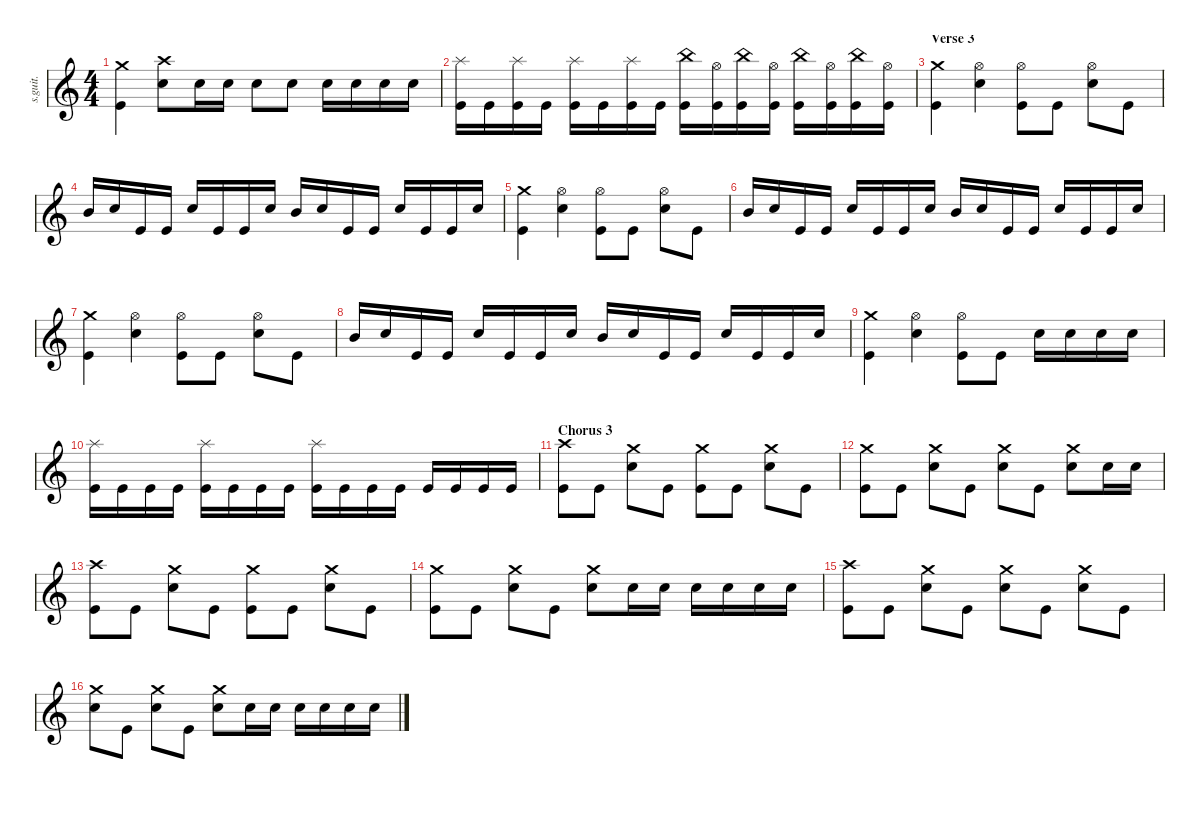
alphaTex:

\defaultSystemsLayout 4
\hideDynamics
\bracketExtendMode nobrackets
\track ("Joey Jordison" "s.guit.") {instrument percussion}
\staff {score}
\articulation defaults
\ts (4 4)
\tempo (205 hide)
\clef g2
\ks c
("Crash medium (hit)" "Kick (hit)").4{lyrics (0 "") lyrics (1 "") lyrics (2 "") lyrics (3 "") lyrics (4 "") dy ff} ("Crash high (hit)" "Snare (hit) 2").8{lyrics (0 "") lyrics (1 "") lyrics (2 "") lyrics (3 "") lyrics (4 "")} "Snare (hit) 2".16{lyrics (0 "") lyrics (1 "") lyrics (2 "") lyrics (3 "") lyrics (4 "")} "Snare (hit) 2".16{lyrics (0 "") lyrics (1 "") lyrics (2 "") lyrics (3 "") lyrics (4 "")} "Snare (hit) 2".8{lyrics (0 "") lyrics (1 "") lyrics (2 "") lyrics (3 "") lyrics (4 "")} "Snare (hit) 2".8{lyrics (0 "") lyrics (1 "") lyrics (2 "") lyrics (3 "") lyrics (4 "")} "Snare (hit) 2".16{lyrics (0 "") lyrics (1 "") lyrics (2 "") lyrics (3 "") lyrics (4 "")} "Snare (hit) 2".16{lyrics (0 "") lyrics (1 "") lyrics (2 "") lyrics (3 "") lyrics (4 "")} "Snare (hit) 2".16{lyrics (0 "") lyrics (1 "") lyrics (2 "") lyrics (3 "") lyrics (4 "")} "Snare (hit) 2".16{lyrics (0 "") lyrics (1 "") lyrics (2 "") lyrics (3 "") lyrics (4 "")} |
("Kick (hit)" "Splash (hit)").16{lyrics (0 "") lyrics (1 "") lyrics (2 "") lyrics (3 "") lyrics (4 "")} "Kick (hit)".16{lyrics (0 "") lyrics (1 "") lyrics (2 "") lyrics (3 "") lyrics (4 "")} ("Kick (hit)" "Splash (hit)").16{lyrics (0 "") lyrics (1 "") lyrics (2 "") lyrics (3 "") lyrics (4 "")} "Kick (hit)".16{lyrics (0 "") lyrics (1 "") lyrics (2 "") lyrics (3 "") lyrics (4 "")} ("Kick (hit)" "Splash (hit)").16{lyrics (0 "") lyrics (1 "") lyrics (2 "") lyrics (3 "") lyrics (4 "")} "Kick (hit)".16{lyrics (0 "") lyrics (1 "") lyrics (2 "") lyrics (3 "") lyrics (4 "")} ("Kick (hit)" "Splash (hit)").16{lyrics (0 "") lyrics (1 "") lyrics (2 "") lyrics (3 "") lyrics (4 "")} "Kick (hit)".16{lyrics (0 "") lyrics (1 "") lyrics (2 "") lyrics (3 "") lyrics (4 "")} ("Kick (hit)" "China (hit)").16{lyrics (0 "") lyrics (1 "") lyrics (2 "") lyrics (3 "") lyrics (4 "")} ("Kick (hit)" "Hi-Hat (open)").16{lyrics (0 "") lyrics (1 "") lyrics (2 "") lyrics (3 "") lyrics (4 "")} ("Kick (hit)" "China (hit)").16{lyrics (0 "") lyrics (1 "") lyrics (2 "") lyrics (3 "") lyrics (4 "")} ("Kick (hit)" "Hi-Hat (open)").16{lyrics (0 "") lyrics (1 "") lyrics (2 "") lyrics (3 "") lyrics (4 "")} ("Kick (hit)" "China (hit)").16{lyrics (0 "") lyrics (1 "") lyrics (2 "") lyrics (3 "") lyrics (4 "")} ("Kick (hit)" "Hi-Hat (open)").16{lyrics (0 "") lyrics (1 "") lyrics (2 "") lyrics (3 "") lyrics (4 "")} ("Kick (hit)" "China (hit)").16{lyrics (0 "") lyrics (1 "") lyrics (2 "") lyrics (3 "") lyrics (4 "")} ("Kick (hit)" "Hi-Hat (open)").16{lyrics (0 "") lyrics (1 "") lyrics (2 "") lyrics (3 "") lyrics (4 "")} |
\section ("" "Verse 3")
\tempo (210 hide)
("Crash medium (hit)" "Kick (hit)").4{lyrics (0 "") lyrics (1 "") lyrics (2 "") lyrics (3 "") lyrics (4 "")} ("Snare (hit) 2" "Hi-Hat (open)").4{lyrics (0 "") lyrics (1 "") lyrics (2 "") lyrics (3 "") lyrics (4 "")} ("Kick (hit)" "Hi-Hat (open)").8{lyrics (0 "") lyrics (1 "") lyrics (2 "") lyrics (3 "") lyrics (4 "")} "Kick (hit)".8{lyrics (0 "") lyrics (1 "") lyrics (2 "") lyrics (3 "") lyrics (4 "")} ("Snare (hit) 2" "Hi-Hat (open)").8{lyrics (0 "") lyrics (1 "") lyrics (2 "") lyrics (3 "") lyrics (4 "")} "Kick (hit)".8{lyrics (0 "") lyrics (1 "") lyrics (2 "") lyrics (3 "") lyrics (4 "")} |
"Mid Tom (hit)".16{lyrics (0 "") lyrics (1 "") lyrics (2 "") lyrics (3 "") lyrics (4 "")} "Snare (hit) 2".16{lyrics (0 "") lyrics (1 "") lyrics (2 "") lyrics (3 "") lyrics (4 "")} "Kick (hit)".16{lyrics (0 "") lyrics (1 "") lyrics (2 "") lyrics (3 "") lyrics (4 "")} "Kick (hit)".16{lyrics (0 "") lyrics (1 "") lyrics (2 "") lyrics (3 "") lyrics (4 "")} "Snare (hit) 2".16{lyrics (0 "") lyrics (1 "") lyrics (2 "") lyrics (3 "") lyrics (4 "")} "Kick (hit)".16{lyrics (0 "") lyrics (1 "") lyrics (2 "") lyrics (3 "") lyrics (4 "")} "Kick (hit)".16{lyrics (0 "") lyrics (1 "") lyrics (2 "") lyrics (3 "") lyrics (4 "")} "Snare (hit) 2".16{lyrics (0 "") lyrics (1 "") lyrics (2 "") lyrics (3 "") lyrics (4 "")} "Mid Tom (hit)".16{lyrics (0 "") lyrics (1 "") lyrics (2 "") lyrics (3 "") lyrics (4 "")} "Snare (hit) 2".16{lyrics (0 "") lyrics (1 "") lyrics (2 "") lyrics (3 "") lyrics (4 "")} "Kick (hit)".16{lyrics (0 "") lyrics (1 "") lyrics (2 "") lyrics (3 "") lyrics (4 "")} "Kick (hit)".16{lyrics (0 "") lyrics (1 "") lyrics (2 "") lyrics (3 "") lyrics (4 "")} "Snare (hit) 2".16{lyrics (0 "") lyrics (1 "") lyrics (2 "") lyrics (3 "") lyrics (4 "")} "Kick (hit)".16{lyrics (0 "") lyrics (1 "") lyrics (2 "") lyrics (3 "") lyrics (4 "")} "Kick (hit)".16{lyrics (0 "") lyrics (1 "") lyrics (2 "") lyrics (3 "") lyrics (4 "")} "Snare (hit) 2".16{lyrics (0 "") lyrics (1 "") lyrics (2 "") lyrics (3 "") lyrics (4 "")} |
("Crash medium (hit)" "Kick (hit)").4{lyrics (0 "") lyrics (1 "") lyrics (2 "") lyrics (3 "") lyrics (4 "")} ("Snare (hit) 2" "Hi-Hat (open)").4{lyrics (0 "") lyrics (1 "") lyrics (2 "") lyrics (3 "") lyrics (4 "")} ("Kick (hit)" "Hi-Hat (open)").8{lyrics (0 "") lyrics (1 "") lyrics (2 "") lyrics (3 "") lyrics (4 "")} "Kick (hit)".8{lyrics (0 "") lyrics (1 "") lyrics (2 "") lyrics (3 "") lyrics (4 "")} ("Snare (hit) 2" "Hi-Hat (open)").8{lyrics (0 "") lyrics (1 "") lyrics (2 "") lyrics (3 "") lyrics (4 "")} "Kick (hit)".8{lyrics (0 "") lyrics (1 "") lyrics (2 "") lyrics (3 "") lyrics (4 "")} |
"Mid Tom (hit)".16{lyrics (0 "") lyrics (1 "") lyrics (2 "") lyrics (3 "") lyrics (4 "")} "Snare (hit) 2".16{lyrics (0 "") lyrics (1 "") lyrics (2 "") lyrics (3 "") lyrics (4 "")} "Kick (hit)".16{lyrics (0 "") lyrics (1 "") lyrics (2 "") lyrics (3 "") lyrics (4 "")} "Kick (hit)".16{lyrics (0 "") lyrics (1 "") lyrics (2 "") lyrics (3 "") lyrics (4 "")} "Snare (hit) 2".16{lyrics (0 "") lyrics (1 "") lyrics (2 "") lyrics (3 "") lyrics (4 "")} "Kick (hit)".16{lyrics (0 "") lyrics (1 "") lyrics (2 "") lyrics (3 "") lyrics (4 "")} "Kick (hit)".16{lyrics (0 "") lyrics (1 "") lyrics (2 "") lyrics (3 "") lyrics (4 "")} "Snare (hit) 2".16{lyrics (0 "") lyrics (1 "") lyrics (2 "") lyrics (3 "") lyrics (4 "")} "Mid Tom (hit)".16{lyrics (0 "") lyrics (1 "") lyrics (2 "") lyrics (3 "") lyrics (4 "")} "Snare (hit) 2".16{lyrics (0 "") lyrics (1 "") lyrics (2 "") lyrics (3 "") lyrics (4 "")} "Kick (hit)".16{lyrics (0 "") lyrics (1 "") lyrics (2 "") lyrics (3 "") lyrics (4 "")} "Kick (hit)".16{lyrics (0 "") lyrics (1 "") lyrics (2 "") lyrics (3 "") lyrics (4 "")} "Snare (hit) 2".16{lyrics (0 "") lyrics (1 "") lyrics (2 "") lyrics (3 "") lyrics (4 "")} "Kick (hit)".16{lyrics (0 "") lyrics (1 "") lyrics (2 "") lyrics (3 "") lyrics (4 "")} "Kick (hit)".16{lyrics (0 "") lyrics (1 "") lyrics (2 "") lyrics (3 "") lyrics (4 "")} "Snare (hit) 2".16{lyrics (0 "") lyrics (1 "") lyrics (2 "") lyrics (3 "") lyrics (4 "")} |
("Crash medium (hit)" "Kick (hit)").4{lyrics (0 "") lyrics (1 "") lyrics (2 "") lyrics (3 "") lyrics (4 "")} ("Snare (hit) 2" "Hi-Hat (open)").4{lyrics (0 "") lyrics (1 "") lyrics (2 "") lyrics (3 "") lyrics (4 "")} ("Kick (hit)" "Hi-Hat (open)").8{lyrics (0 "") lyrics (1 "") lyrics (2 "") lyrics (3 "") lyrics (4 "")} "Kick (hit)".8{lyrics (0 "") lyrics (1 "") lyrics (2 "") lyrics (3 "") lyrics (4 "")} ("Snare (hit) 2" "Hi-Hat (open)").8{lyrics (0 "") lyrics (1 "") lyrics (2 "") lyrics (3 "") lyrics (4 "")} "Kick (hit)".8{lyrics (0 "") lyrics (1 "") lyrics (2 "") lyrics (3 "") lyrics (4 "")} |
"Mid Tom (hit)".16{lyrics (0 "") lyrics (1 "") lyrics (2 "") lyrics (3 "") lyrics (4 "")} "Snare (hit) 2".16{lyrics (0 "") lyrics (1 "") lyrics (2 "") lyrics (3 "") lyrics (4 "")} "Kick (hit)".16{lyrics (0 "") lyrics (1 "") lyrics (2 "") lyrics (3 "") lyrics (4 "")} "Kick (hit)".16{lyrics (0 "") lyrics (1 "") lyrics (2 "") lyrics (3 "") lyrics (4 "")} "Snare (hit) 2".16{lyrics (0 "") lyrics (1 "") lyrics (2 "") lyrics (3 "") lyrics (4 "")} "Kick (hit)".16{lyrics (0 "") lyrics (1 "") lyrics (2 "") lyrics (3 "") lyrics (4 "")} "Kick (hit)".16{lyrics (0 "") lyrics (1 "") lyrics (2 "") lyrics (3 "") lyrics (4 "")} "Snare (hit) 2".16{lyrics (0 "") lyrics (1 "") lyrics (2 "") lyrics (3 "") lyrics (4 "")} "Mid Tom (hit)".16{lyrics (0 "") lyrics (1 "") lyrics (2 "") lyrics (3 "") lyrics (4 "")} "Snare (hit) 2".16{lyrics (0 "") lyrics (1 "") lyrics (2 "") lyrics (3 "") lyrics (4 "")} "Kick (hit)".16{lyrics (0 "") lyrics (1 "") lyrics (2 "") lyrics (3 "") lyrics (4 "")} "Kick (hit)".16{lyrics (0 "") lyrics (1 "") lyrics (2 "") lyrics (3 "") lyrics (4 "")} "Snare (hit) 2".16{lyrics (0 "") lyrics (1 "") lyrics (2 "") lyrics (3 "") lyrics (4 "")} "Kick (hit)".16{lyrics (0 "") lyrics (1 "") lyrics (2 "") lyrics (3 "") lyrics (4 "")} "Kick (hit)".16{lyrics (0 "") lyrics (1 "") lyrics (2 "") lyrics (3 "") lyrics (4 "")} "Snare (hit) 2".16{lyrics (0 "") lyrics (1 "") lyrics (2 "") lyrics (3 "") lyrics (4 "")} |
("Crash medium (hit)" "Kick (hit)").4{lyrics (0 "") lyrics (1 "") lyrics (2 "") lyrics (3 "") lyrics (4 "")} ("Snare (hit) 2" "Hi-Hat (open)").4{lyrics (0 "") lyrics (1 "") lyrics (2 "") lyrics (3 "") lyrics (4 "")} ("Kick (hit)" "Hi-Hat (open)").8{lyrics (0 "") lyrics (1 "") lyrics (2 "") lyrics (3 "") lyrics (4 "")} "Kick (hit)".8{lyrics (0 "") lyrics (1 "") lyrics (2 "") lyrics (3 "") lyrics (4 "")} "Snare (hit) 2".16{lyrics (0 "") lyrics (1 "") lyrics (2 "") lyrics (3 "") lyrics (4 "")} "Snare (hit) 2".16{lyrics (0 "") lyrics (1 "") lyrics (2 "") lyrics (3 "") lyrics (4 "")} "Snare (hit) 2".16{lyrics (0 "") lyrics (1 "") lyrics (2 "") lyrics (3 "") lyrics (4 "")} "Snare (hit) 2".16{lyrics (0 "") lyrics (1 "") lyrics (2 "") lyrics (3 "") lyrics (4 "")} |
("Kick (hit)" "Splash (hit)").16{lyrics (0 "") lyrics (1 "") lyrics (2 "") lyrics (3 "") lyrics (4 "")} "Kick (hit)".16{lyrics (0 "") lyrics (1 "") lyrics (2 "") lyrics (3 "") lyrics (4 "")} "Kick (hit)".16{lyrics (0 "") lyrics (1 "") lyrics (2 "") lyrics (3 "") lyrics (4 "")} "Kick (hit)".16{lyrics (0 "") lyrics (1 "") lyrics (2 "") lyrics (3 "") lyrics (4 "")} ("Kick (hit)" "Splash (hit)").16{lyrics (0 "") lyrics (1 "") lyrics (2 "") lyrics (3 "") lyrics (4 "")} "Kick (hit)".16{lyrics (0 "") lyrics (1 "") lyrics (2 "") lyrics (3 "") lyrics (4 "")} "Kick (hit)".16{lyrics (0 "") lyrics (1 "") lyrics (2 "") lyrics (3 "") lyrics (4 "")} "Kick (hit)".16{lyrics (0 "") lyrics (1 "") lyrics (2 "") lyrics (3 "") lyrics (4 "")} ("Kick (hit)" "Splash (hit)").16{lyrics (0 "") lyrics (1 "") lyrics (2 "") lyrics (3 "") lyrics (4 "")} "Kick (hit)".16{lyrics (0 "") lyrics (1 "") lyrics (2 "") lyrics (3 "") lyrics (4 "")} "Kick (hit)".16{lyrics (0 "") lyrics (1 "") lyrics (2 "") lyrics (3 "") lyrics (4 "")} "Kick (hit)".16{lyrics (0 "") lyrics (1 "") lyrics (2 "") lyrics (3 "") lyrics (4 "")} "Kick (hit)".16{lyrics (0 "") lyrics (1 "") lyrics (2 "") lyrics (3 "") lyrics (4 "")} "Kick (hit)".16{lyrics (0 "") lyrics (1 "") lyrics (2 "") lyrics (3 "") lyrics (4 "")} "Kick (hit)".16{lyrics (0 "") lyrics (1 "") lyrics (2 "") lyrics (3 "") lyrics (4 "")} "Kick (hit)".16{lyrics (0 "") lyrics (1 "") lyrics (2 "") lyrics (3 "") lyrics (4 "")} |
\section ("" "Chorus 3")
("Crash high (hit)" "Kick (hit)").8{lyrics (0 "") lyrics (1 "") lyrics (2 "") lyrics (3 "") lyrics (4 "")} "Kick (hit)".8{lyrics (0 "") lyrics (1 "") lyrics (2 "") lyrics (3 "") lyrics (4 "")} ("Crash medium (hit)" "Snare (hit) 2").8{lyrics (0 "") lyrics (1 "") lyrics (2 "") lyrics (3 "") lyrics (4 "")} "Kick (hit)".8{lyrics (0 "") lyrics (1 "") lyrics (2 "") lyrics (3 "") lyrics (4 "")} ("Crash medium (hit)" "Kick (hit)").8{lyrics (0 "") lyrics (1 "") lyrics (2 "") lyrics (3 "") lyrics (4 "")} "Kick (hit)".8{lyrics (0 "") lyrics (1 "") lyrics (2 "") lyrics (3 "") lyrics (4 "")} ("Crash medium (hit)" "Snare (hit) 2").8{lyrics (0 "") lyrics (1 "") lyrics (2 "") lyrics (3 "") lyrics (4 "")} "Kick (hit)".8{lyrics (0 "") lyrics (1 "") lyrics (2 "") lyrics (3 "") lyrics (4 "")} |
("Crash medium (hit)" "Kick (hit)").8{lyrics (0 "") lyrics (1 "") lyrics (2 "") lyrics (3 "") lyrics (4 "")} "Kick (hit)".8{lyrics (0 "") lyrics (1 "") lyrics (2 "") lyrics (3 "") lyrics (4 "")} ("Crash medium (hit)" "Snare (hit) 2").8{lyrics (0 "") lyrics (1 "") lyrics (2 "") lyrics (3 "") lyrics (4 "")} "Kick (hit)".8{lyrics (0 "") lyrics (1 "") lyrics (2 "") lyrics (3 "") lyrics (4 "")} ("Crash medium (hit)" "Snare (hit) 2").8{lyrics (0 "") lyrics (1 "") lyrics (2 "") lyrics (3 "") lyrics (4 "")} "Kick (hit)".8{lyrics (0 "") lyrics (1 "") lyrics (2 "") lyrics (3 "") lyrics (4 "")} ("Crash medium (hit)" "Snare (hit) 2").8{lyrics (0 "") lyrics (1 "") lyrics (2 "") lyrics (3 "") lyrics (4 "")} "Snare (hit) 2".16{lyrics (0 "") lyrics (1 "") lyrics (2 "") lyrics (3 "") lyrics (4 "")} "Snare (hit) 2".16{lyrics (0 "") lyrics (1 "") lyrics (2 "") lyrics (3 "") lyrics (4 "")} |
("Crash high (hit)" "Kick (hit)").8{lyrics (0 "") lyrics (1 "") lyrics (2 "") lyrics (3 "") lyrics (4 "")} "Kick (hit)".8{lyrics (0 "") lyrics (1 "") lyrics (2 "") lyrics (3 "") lyrics (4 "")} ("Crash medium (hit)" "Snare (hit) 2").8{lyrics (0 "") lyrics (1 "") lyrics (2 "") lyrics (3 "") lyrics (4 "")} "Kick (hit)".8{lyrics (0 "") lyrics (1 "") lyrics (2 "") lyrics (3 "") lyrics (4 "")} ("Crash medium (hit)" "Kick (hit)").8{lyrics (0 "") lyrics (1 "") lyrics (2 "") lyrics (3 "") lyrics (4 "")} "Kick (hit)".8{lyrics (0 "") lyrics (1 "") lyrics (2 "") lyrics (3 "") lyrics (4 "")} ("Crash medium (hit)" "Snare (hit) 2").8{lyrics (0 "") lyrics (1 "") lyrics (2 "") lyrics (3 "") lyrics (4 "")} "Kick (hit)".8{lyrics (0 "") lyrics (1 "") lyrics (2 "") lyrics (3 "") lyrics (4 "")} |
("Crash medium (hit)" "Kick (hit)").8{lyrics (0 "") lyrics (1 "") lyrics (2 "") lyrics (3 "") lyrics (4 "")} "Kick (hit)".8{lyrics (0 "") lyrics (1 "") lyrics (2 "") lyrics (3 "") lyrics (4 "")} ("Crash medium (hit)" "Snare (hit) 2").8{lyrics (0 "") lyrics (1 "") lyrics (2 "") lyrics (3 "") lyrics (4 "")} "Kick (hit)".8{lyrics (0 "") lyrics (1 "") lyrics (2 "") lyrics (3 "") lyrics (4 "")} ("Snare (hit) 2" "Crash medium (hit)").8{lyrics (0 "") lyrics (1 "") lyrics (2 "") lyrics (3 "") lyrics (4 "")} "Snare (hit) 2".16{lyrics (0 "") lyrics (1 "") lyrics (2 "") lyrics (3 "") lyrics (4 "")} "Snare (hit) 2".16{lyrics (0 "") lyrics (1 "") lyrics (2 "") lyrics (3 "") lyrics (4 "")} "Snare (hit) 2".16{lyrics (0 "") lyrics (1 "") lyrics (2 "") lyrics (3 "") lyrics (4 "")} "Snare (hit) 2".16{lyrics (0 "") lyrics (1 "") lyrics (2 "") lyrics (3 "") lyrics (4 "")} "Snare (hit) 2".16{lyrics (0 "") lyrics (1 "") lyrics (2 "") lyrics (3 "") lyrics (4 "")} "Snare (hit) 2".16{lyrics (0 "") lyrics (1 "") lyrics (2 "") lyrics (3 "") lyrics (4 "")} |
("Crash high (hit)" "Kick (hit)").8{lyrics (0 "") lyrics (1 "") lyrics (2 "") lyrics (3 "") lyrics (4 "")} "Kick (hit)".8{lyrics (0 "") lyrics (1 "") lyrics (2 "") lyrics (3 "") lyrics (4 "")} ("Crash medium (hit)" "Snare (hit) 2").8{lyrics (0 "") lyrics (1 "") lyrics (2 "") lyrics (3 "") lyrics (4 "")} "Kick (hit)".8{lyrics (0 "") lyrics (1 "") lyrics (2 "") lyrics (3 "") lyrics (4 "")} ("Crash medium (hit)" "Snare (hit) 2").8{lyrics (0 "") lyrics (1 "") lyrics (2 "") lyrics (3 "") lyrics (4 "")} "Kick (hit)".8{lyrics (0 "") lyrics (1 "") lyrics (2 "") lyrics (3 "") lyrics (4 "")} ("Crash medium (hit)" "Snare (hit) 2").8{lyrics (0 "") lyrics (1 "") lyrics (2 "") lyrics (3 "") lyrics (4 "")} "Kick (hit)".8{lyrics (0 "") lyrics (1 "") lyrics (2 "") lyrics (3 "") lyrics (4 "")} |
("Crash medium (hit)" "Snare (hit) 2").8{lyrics (0 "") lyrics (1 "") lyrics (2 "") lyrics (3 "") lyrics (4 "")} "Kick (hit)".8{lyrics (0 "") lyrics (1 "") lyrics (2 "") lyrics (3 "") lyrics (4 "")} ("Crash medium (hit)" "Snare (hit) 2").8{lyrics (0 "") lyrics (1 "") lyrics (2 "") lyrics (3 "") lyrics (4 "")} "Kick (hit)".8{lyrics (0 "") lyrics (1 "") lyrics (2 "") lyrics (3 "") lyrics (4 "")} ("Crash medium (hit)" "Snare (hit) 2").8{lyrics (0 "") lyrics (1 "") lyrics (2 "") lyrics (3 "") lyrics (4 "")} "Snare (hit) 2".16{lyrics (0 "") lyrics (1 "") lyrics (2 "") lyrics (3 "") lyrics (4 "")} "Snare (hit) 2".16{lyrics (0 "") lyrics (1 "") lyrics (2 "") lyrics (3 "") lyrics (4 "")} "Snare (hit) 2".16{lyrics (0 "") lyrics (1 "") lyrics (2 "") lyrics (3 "") lyrics (4 "")} "Snare (hit) 2".16{lyrics (0 "") lyrics (1 "") lyrics (2 "") lyrics (3 "") lyrics (4 "")} "Snare (hit) 2".16{lyrics (0 "") lyrics (1 "") lyrics (2 "") lyrics (3 "") lyrics (4 "")} "Snare (hit) 2".16{lyrics (0 "") lyrics (1 "") lyrics (2 "") lyrics (3 "") lyrics (4 "")}
